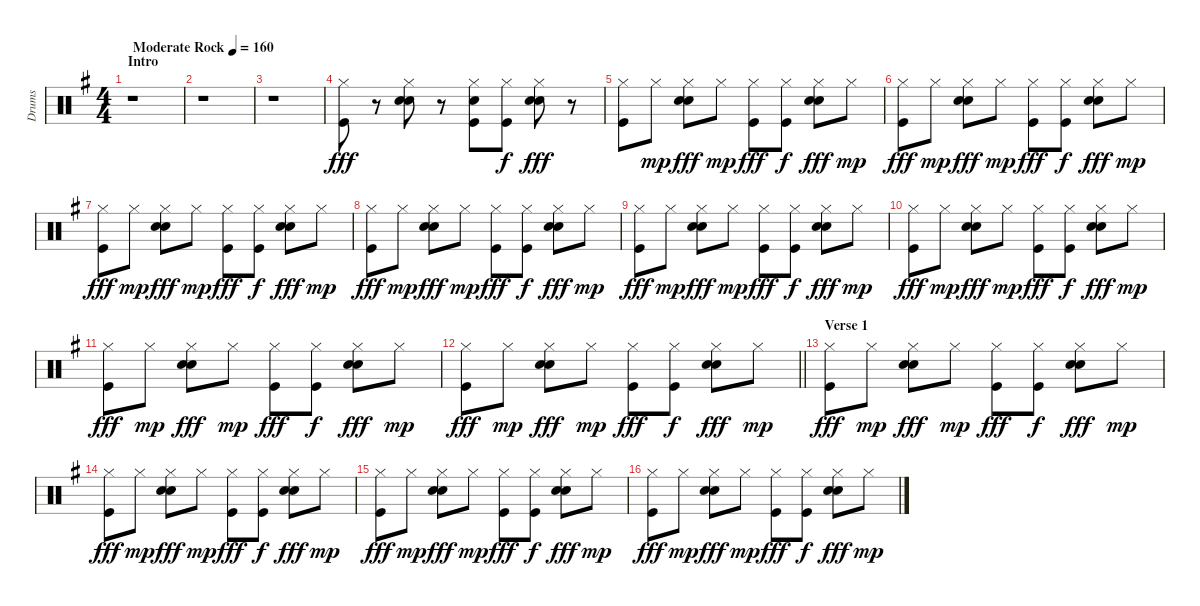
\track ("Drums" "Drums") {instrument percussion}
\staff {score}
\articulation defaults
\ts (4 4)
\section ("" "Intro")
\tempo (160 "Moderate Rock")
\clef neutral
\ks g
r.1{dy fff} |
r.1 |
r.1 |
("Hi-Hat (closed)" "Kick (hit)").8 r.8 ("Snare (hit) 2" "Hi-Hat (closed)" "Electric Snare (hit)").8 r.8 ("Hi-Hat (closed)" "Kick (hit)" "Electric Snare (hit)").8 ("Hi-Hat (closed)" "Kick (hit)").8{dy f} ("Snare (hit) 2" "Hi-Hat (closed)" "Electric Snare (hit)").8{dy fff} r.8 |
("Hi-Hat (closed)" "Kick (hit)").8 "Hi-Hat (closed)".8{dy mp} ("Snare (hit) 2" "Hi-Hat (closed)" "Electric Snare (hit)").8{dy fff} "Hi-Hat (closed)".8{dy mp} ("Hi-Hat (closed)" "Kick (hit)").8{dy fff} ("Hi-Hat (closed)" "Kick (hit)").8{dy f} ("Snare (hit) 2" "Hi-Hat (closed)" "Electric Snare (hit)").8{dy fff} "Hi-Hat (closed)".8{dy mp} |
("Hi-Hat (closed)" "Kick (hit)").8{dy fff} "Hi-Hat (closed)".8{dy mp} ("Snare (hit) 2" "Hi-Hat (closed)" "Electric Snare (hit)").8{dy fff} "Hi-Hat (closed)".8{dy mp} ("Hi-Hat (closed)" "Kick (hit)").8{dy fff} ("Hi-Hat (closed)" "Kick (hit)").8{dy f} ("Snare (hit) 2" "Hi-Hat (closed)" "Electric Snare (hit)").8{dy fff} "Hi-Hat (closed)".8{dy mp} |
("Hi-Hat (closed)" "Kick (hit)").8{dy fff} "Hi-Hat (closed)".8{dy mp} ("Snare (hit) 2" "Hi-Hat (closed)" "Electric Snare (hit)").8{dy fff} "Hi-Hat (closed)".8{dy mp} ("Hi-Hat (closed)" "Kick (hit)").8{dy fff} ("Hi-Hat (closed)" "Kick (hit)").8{dy f} ("Snare (hit) 2" "Hi-Hat (closed)" "Electric Snare (hit)").8{dy fff} "Hi-Hat (closed)".8{dy mp} |
("Hi-Hat (closed)" "Kick (hit)").8{dy fff} "Hi-Hat (closed)".8{dy mp} ("Snare (hit) 2" "Hi-Hat (closed)" "Electric Snare (hit)").8{dy fff} "Hi-Hat (closed)".8{dy mp} ("Hi-Hat (closed)" "Kick (hit)").8{dy fff} ("Hi-Hat (closed)" "Kick (hit)").8{dy f} ("Snare (hit) 2" "Hi-Hat (closed)" "Electric Snare (hit)").8{dy fff} "Hi-Hat (closed)".8{dy mp} |
("Hi-Hat (closed)" "Kick (hit)").8{dy fff} "Hi-Hat (closed)".8{dy mp} ("Snare (hit) 2" "Hi-Hat (closed)" "Electric Snare (hit)").8{dy fff} "Hi-Hat (closed)".8{dy mp} ("Hi-Hat (closed)" "Kick (hit)").8{dy fff} ("Hi-Hat (closed)" "Kick (hit)").8{dy f} ("Snare (hit) 2" "Hi-Hat (closed)" "Electric Snare (hit)").8{dy fff} "Hi-Hat (closed)".8{dy mp} |
("Hi-Hat (closed)" "Kick (hit)").8{dy fff} "Hi-Hat (closed)".8{dy mp} ("Snare (hit) 2" "Hi-Hat (closed)" "Electric Snare (hit)").8{dy fff} "Hi-Hat (closed)".8{dy mp} ("Hi-Hat (closed)" "Kick (hit)").8{dy fff} ("Hi-Hat (closed)" "Kick (hit)").8{dy f} ("Snare (hit) 2" "Hi-Hat (closed)" "Electric Snare (hit)").8{dy fff} "Hi-Hat (closed)".8{dy mp} |
("Hi-Hat (closed)" "Kick (hit)").8{dy fff} "Hi-Hat (closed)".8{dy mp} ("Snare (hit) 2" "Hi-Hat (closed)" "Electric Snare (hit)").8{dy fff} "Hi-Hat (closed)".8{dy mp} ("Hi-Hat (closed)" "Kick (hit)").8{dy fff} ("Hi-Hat (closed)" "Kick (hit)").8{dy f} ("Snare (hit) 2" "Hi-Hat (closed)" "Electric Snare (hit)").8{dy fff} "Hi-Hat (closed)".8{dy mp} |
\barLineRight lightlight
("Hi-Hat (closed)" "Kick (hit)").8{dy fff} "Hi-Hat (closed)".8{dy mp} ("Snare (hit) 2" "Hi-Hat (closed)" "Electric Snare (hit)").8{dy fff} "Hi-Hat (closed)".8{dy mp} ("Hi-Hat (closed)" "Kick (hit)").8{dy fff} ("Hi-Hat (closed)" "Kick (hit)").8{dy f} ("Snare (hit) 2" "Hi-Hat (closed)" "Electric Snare (hit)").8{dy fff} "Hi-Hat (closed)".8{dy mp} |
\section ("" "Verse 1")
("Hi-Hat (closed)" "Kick (hit)").8{dy fff} "Hi-Hat (closed)".8{dy mp} ("Snare (hit) 2" "Hi-Hat (closed)" "Electric Snare (hit)").8{dy fff} "Hi-Hat (closed)".8{dy mp} ("Hi-Hat (closed)" "Kick (hit)").8{dy fff} ("Hi-Hat (closed)" "Kick (hit)").8{dy f} ("Snare (hit) 2" "Hi-Hat (closed)" "Electric Snare (hit)").8{dy fff} "Hi-Hat (closed)".8{dy mp} |
("Hi-Hat (closed)" "Kick (hit)").8{dy fff} "Hi-Hat (closed)".8{dy mp} ("Snare (hit) 2" "Hi-Hat (closed)" "Electric Snare (hit)").8{dy fff} "Hi-Hat (closed)".8{dy mp} ("Hi-Hat (closed)" "Kick (hit)").8{dy fff} ("Hi-Hat (closed)" "Kick (hit)").8{dy f} ("Snare (hit) 2" "Hi-Hat (closed)" "Electric Snare (hit)").8{dy fff} "Hi-Hat (closed)".8{dy mp} |
("Hi-Hat (closed)" "Kick (hit)").8{dy fff} "Hi-Hat (closed)".8{dy mp} ("Snare (hit) 2" "Hi-Hat (closed)" "Electric Snare (hit)").8{dy fff} "Hi-Hat (closed)".8{dy mp} ("Hi-Hat (closed)" "Kick (hit)").8{dy fff} ("Hi-Hat (closed)" "Kick (hit)").8{dy f} ("Snare (hit) 2" "Hi-Hat (closed)" "Electric Snare (hit)").8{dy fff} "Hi-Hat (closed)".8{dy mp} |
("Hi-Hat (closed)" "Kick (hit)").8{dy fff} "Hi-Hat (closed)".8{dy mp} ("Snare (hit) 2" "Hi-Hat (closed)" "Electric Snare (hit)").8{dy fff} "Hi-Hat (closed)".8{dy mp} ("Hi-Hat (closed)" "Kick (hit)").8{dy fff} ("Hi-Hat (closed)" "Kick (hit)").8{dy f} ("Snare (hit) 2" "Hi-Hat (closed)" "Electric Snare (hit)").8{dy fff} "Hi-Hat (closed)".8{dy mp}
